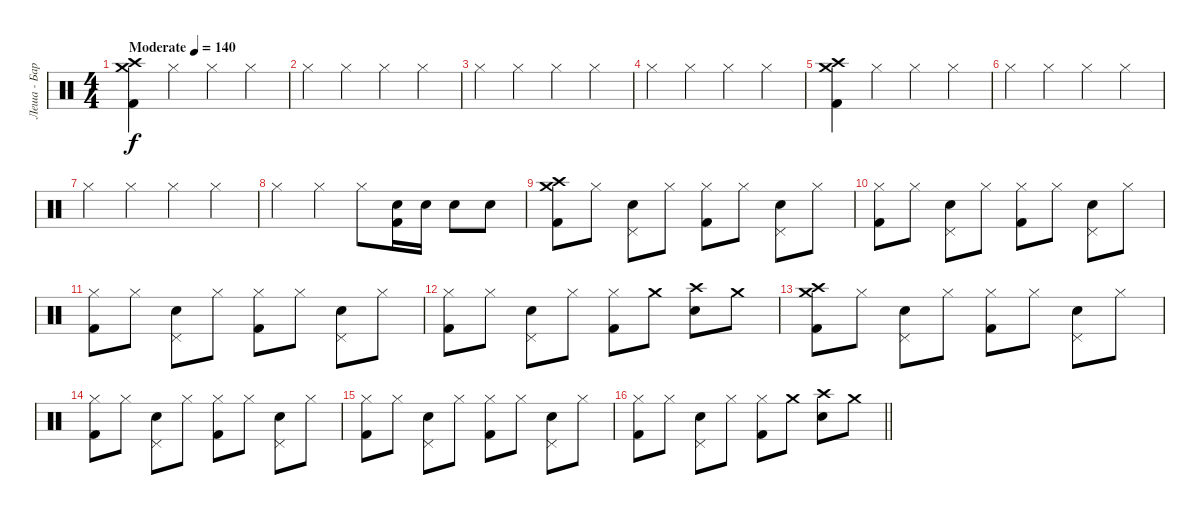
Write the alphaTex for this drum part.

\track ("Леша - Барабаны" "Леша - Бар") {instrument percussion}
\staff {score}
\articulation defaults
\ts (4 4)
\tempo (140 "Moderate")
\clef neutral
\ks c
("Crash medium (hit)" "Crash high (hit)" "Kick (hit) 2").4{dy f} "Hi-Hat (closed)".4 "Hi-Hat (closed)".4 "Hi-Hat (closed)".4 |
"Hi-Hat (closed)".4 "Hi-Hat (closed)".4 "Hi-Hat (closed)".4 "Hi-Hat (closed)".4 |
"Hi-Hat (closed)".4 "Hi-Hat (closed)".4 "Hi-Hat (closed)".4 "Hi-Hat (closed)".4 |
"Hi-Hat (closed)".4 "Hi-Hat (closed)".4 "Hi-Hat (closed)".4 "Hi-Hat (closed)".4 |
("Crash high (hit)" "Crash medium (hit)" "Kick (hit) 2").4 "Hi-Hat (closed)".4 "Hi-Hat (closed)".4 "Hi-Hat (closed)".4 |
"Hi-Hat (closed)".4 "Hi-Hat (closed)".4 "Hi-Hat (closed)".4 "Hi-Hat (closed)".4 |
"Hi-Hat (closed)".4 "Hi-Hat (closed)".4 "Hi-Hat (closed)".4 "Hi-Hat (closed)".4 |
"Hi-Hat (closed)".4 "Hi-Hat (closed)".4 "Hi-Hat (closed)".8 ("Snare (hit) 2" "Kick (hit) 2").16 "Electric Snare (hit)".16 "Snare (hit) 2".8 "Electric Snare (hit)".8 |
("Crash high (hit)" "Crash medium (hit)" "Kick (hit) 2").8 "Hi-Hat (closed)".8 ("Pedal Hi-Hat (hit)" "Snare (hit) 2").8 "Hi-Hat (closed)".8 ("Hi-Hat (closed)" "Kick (hit) 2").8 "Hi-Hat (closed)".8 ("Pedal Hi-Hat (hit)" "Snare (hit) 2").8 "Hi-Hat (closed)".8 |
("Hi-Hat (closed)" "Kick (hit) 2").8 "Hi-Hat (closed)".8 ("Pedal Hi-Hat (hit)" "Snare (hit) 2").8 "Hi-Hat (closed)".8 ("Hi-Hat (closed)" "Kick (hit) 2").8 "Hi-Hat (closed)".8 ("Pedal Hi-Hat (hit)" "Snare (hit) 2").8 "Hi-Hat (closed)".8 |
("Hi-Hat (closed)" "Kick (hit) 2").8 "Hi-Hat (closed)".8 ("Pedal Hi-Hat (hit)" "Snare (hit) 2").8 "Hi-Hat (closed)".8 ("Hi-Hat (closed)" "Kick (hit) 2").8 "Hi-Hat (closed)".8 ("Pedal Hi-Hat (hit)" "Snare (hit) 2").8 "Hi-Hat (closed)".8 |
("Hi-Hat (closed)" "Kick (hit) 2").8 "Hi-Hat (closed)".8 ("Pedal Hi-Hat (hit)" "Snare (hit) 2").8 "Hi-Hat (closed)".8 ("Hi-Hat (closed)" "Kick (hit) 2").8 "Crash medium (hit)".8 ("Crash high (hit)" "Snare (hit) 2").8 "Crash medium (hit)".8 |
("Crash high (hit)" "Crash medium (hit)" "Kick (hit) 2").8 "Hi-Hat (closed)".8 ("Pedal Hi-Hat (hit)" "Snare (hit) 2").8 "Hi-Hat (closed)".8 ("Hi-Hat (closed)" "Kick (hit) 2").8 "Hi-Hat (closed)".8 ("Pedal Hi-Hat (hit)" "Snare (hit) 2").8 "Hi-Hat (closed)".8 |
("Hi-Hat (closed)" "Kick (hit) 2").8 "Hi-Hat (closed)".8 ("Pedal Hi-Hat (hit)" "Snare (hit) 2").8 "Hi-Hat (closed)".8 ("Hi-Hat (closed)" "Kick (hit) 2").8 "Hi-Hat (closed)".8 ("Pedal Hi-Hat (hit)" "Snare (hit) 2").8 "Hi-Hat (closed)".8 |
("Hi-Hat (closed)" "Kick (hit) 2").8 "Hi-Hat (closed)".8 ("Pedal Hi-Hat (hit)" "Snare (hit) 2").8 "Hi-Hat (closed)".8 ("Hi-Hat (closed)" "Kick (hit) 2").8 "Hi-Hat (closed)".8 ("Pedal Hi-Hat (hit)" "Snare (hit) 2").8 "Hi-Hat (closed)".8 |
\barLineRight lightlight
("Hi-Hat (closed)" "Kick (hit) 2").8 "Hi-Hat (closed)".8 ("Pedal Hi-Hat (hit)" "Snare (hit) 2").8 "Hi-Hat (closed)".8 ("Hi-Hat (closed)" "Kick (hit) 2").8 "Crash medium (hit)".8 ("Crash high (hit)" "Snare (hit) 2").8 "Crash medium (hit)".8
